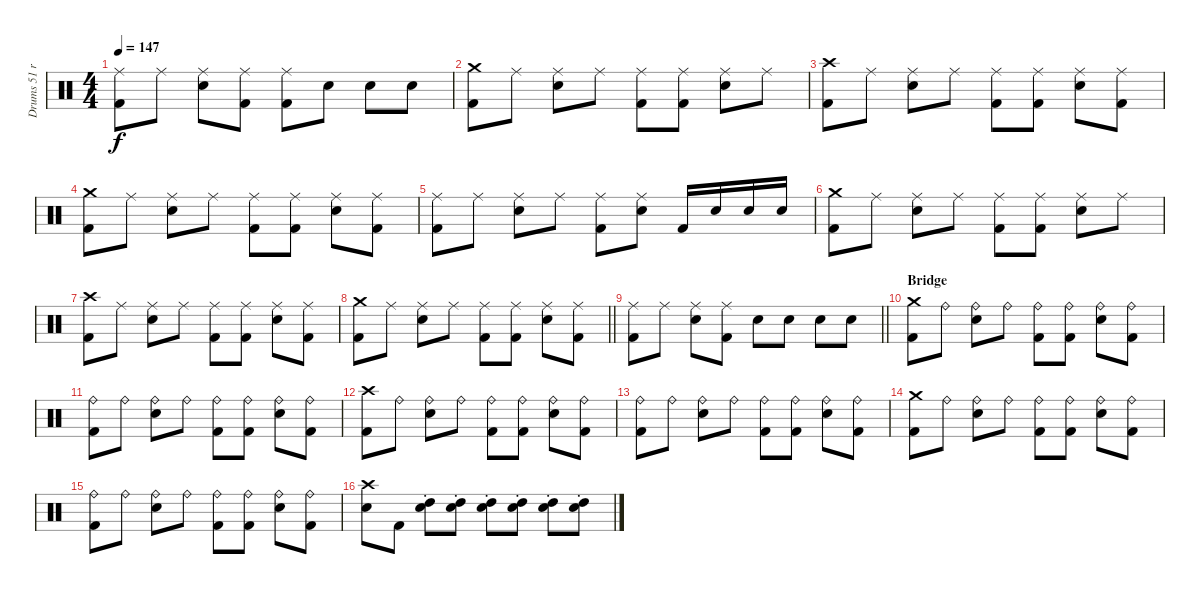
\track ("Drums 51 ride" "Drums 51 r") {mute instrument percussion}
\staff {score}
\articulation defaults
\ts (4 4)
\tempo 147
\clef neutral
\ks c
("Ride (middle)" "Kick (hit) 2").8{dy f} "Ride (middle)".8 ("Ride (middle)" "Snare (hit) 2").8 ("Ride (middle)" "Kick (hit) 2").8 ("Ride (middle)" "Kick (hit) 2").8 "Snare (hit) 2".8 "Snare (hit) 2".8 "Snare (hit) 2".8 |
("Crash medium (hit)" "Kick (hit) 2").8 "Ride (middle)".8 ("Ride (middle)" "Snare (hit) 2").8 "Ride (middle)".8 ("Ride (middle)" "Kick (hit) 2").8 ("Ride (middle)" "Kick (hit) 2").8 ("Ride (middle)" "Snare (hit) 2").8 "Ride (middle)".8 |
("Crash high (hit)" "Kick (hit) 2").8 "Ride (middle)".8 ("Ride (middle)" "Snare (hit) 2").8 "Ride (middle)".8 ("Ride (middle)" "Kick (hit) 2").8 ("Ride (middle)" "Kick (hit) 2").8 ("Ride (middle)" "Snare (hit) 2").8 ("Ride (middle)" "Kick (hit) 2").8 |
("Crash medium (hit)" "Kick (hit) 2").8 "Ride (middle)".8 ("Ride (middle)" "Snare (hit) 2").8 "Ride (middle)".8 ("Ride (middle)" "Kick (hit) 2").8 ("Ride (middle)" "Kick (hit) 2").8 ("Ride (middle)" "Snare (hit) 2").8 ("Ride (middle)" "Kick (hit) 2").8 |
("Ride (middle)" "Kick (hit) 2").8 "Ride (middle)".8 ("Ride (middle)" "Snare (hit) 2").8 "Ride (middle)".8 ("Ride (middle)" "Kick (hit) 2").8 ("Ride (middle)" "Snare (hit) 2").8 "Kick (hit) 2".16 "Snare (hit) 2".16 "Snare (hit) 2".16 "Snare (hit) 2".16 |
("Crash medium (hit)" "Kick (hit) 2").8 "Ride (middle)".8 ("Ride (middle)" "Snare (hit) 2").8 "Ride (middle)".8 ("Ride (middle)" "Kick (hit) 2").8 ("Ride (middle)" "Kick (hit) 2").8 ("Ride (middle)" "Snare (hit) 2").8 "Ride (middle)".8 |
("Crash high (hit)" "Kick (hit) 2").8 "Ride (middle)".8 ("Ride (middle)" "Snare (hit) 2").8 "Ride (middle)".8 ("Ride (middle)" "Kick (hit) 2").8 ("Ride (middle)" "Kick (hit) 2").8 ("Ride (middle)" "Snare (hit) 2").8 ("Ride (middle)" "Kick (hit) 2").8 |
\barLineRight lightlight
("Crash medium (hit)" "Kick (hit) 2").8 "Ride (middle)".8 ("Ride (middle)" "Snare (hit) 2").8 "Ride (middle)".8 ("Ride (middle)" "Kick (hit) 2").8 ("Ride (middle)" "Kick (hit) 2").8 ("Ride (middle)" "Snare (hit) 2").8 ("Ride (middle)" "Kick (hit) 2").8 |
\barLineRight lightlight
("Ride (middle)" "Kick (hit) 2").8 "Ride (middle)".8 ("Ride (middle)" "Snare (hit) 2").8 ("Ride (middle)" "Kick (hit) 2").8 "Snare (hit) 2".8 "Snare (hit) 2".8 "Snare (hit) 2".8 "Snare (hit) 2".8 |
\section ("" "Bridge")
("Crash medium (hit)" "Kick (hit) 2").8 "Ride (bell)".8 ("Ride (bell)" "Snare (hit) 2").8 "Ride (bell)".8 ("Ride (bell)" "Kick (hit) 2").8 ("Ride (bell)" "Kick (hit) 2").8 ("Ride (bell)" "Snare (hit) 2").8 ("Ride (bell)" "Kick (hit) 2").8 |
("Ride (bell)" "Kick (hit) 2").8 "Ride (bell)".8 ("Ride (bell)" "Snare (hit) 2").8 "Ride (bell)".8 ("Ride (bell)" "Kick (hit) 2").8 ("Ride (bell)" "Kick (hit) 2").8 ("Ride (bell)" "Snare (hit) 2").8 ("Ride (bell)" "Kick (hit) 2").8 |
("Crash high (hit)" "Kick (hit) 2").8 "Ride (bell)".8 ("Ride (bell)" "Snare (hit) 2").8 "Ride (bell)".8 ("Ride (bell)" "Kick (hit) 2").8 ("Ride (bell)" "Kick (hit) 2").8 ("Ride (bell)" "Snare (hit) 2").8 ("Ride (bell)" "Kick (hit) 2").8 |
("Ride (bell)" "Kick (hit) 2").8 "Ride (bell)".8 ("Ride (bell)" "Snare (hit) 2").8 "Ride (bell)".8 ("Ride (bell)" "Kick (hit) 2").8 ("Ride (bell)" "Kick (hit) 2").8 ("Ride (bell)" "Snare (hit) 2").8 ("Ride (bell)" "Kick (hit) 2").8 |
("Crash medium (hit)" "Kick (hit) 2").8 "Ride (bell)".8 ("Ride (bell)" "Snare (hit) 2").8 "Ride (bell)".8 ("Ride (bell)" "Kick (hit) 2").8 ("Ride (bell)" "Kick (hit) 2").8 ("Ride (bell)" "Snare (hit) 2").8 ("Ride (bell)" "Kick (hit) 2").8 |
("Ride (bell)" "Kick (hit) 2").8 "Ride (bell)".8 ("Ride (bell)" "Snare (hit) 2").8 "Ride (bell)".8 ("Ride (bell)" "Kick (hit) 2").8 ("Ride (bell)" "Kick (hit) 2").8 ("Ride (bell)" "Snare (hit) 2").8 ("Ride (bell)" "Kick (hit) 2").8 |
("Crash high (hit)" "Snare (hit) 2").8 "Kick (hit) 2".8 ("High Tom (hit)" "Snare (hit) 2"{st}).8 ("High Tom (hit)" "Snare (hit) 2"{st}).8 ("High Tom (hit)" "Snare (hit) 2"{st}).8 ("High Tom (hit)" "Snare (hit) 2"{st}).8 ("High Tom (hit)" "Snare (hit) 2"{st}).8 ("High Tom (hit)" "Snare (hit) 2"{st}).8
